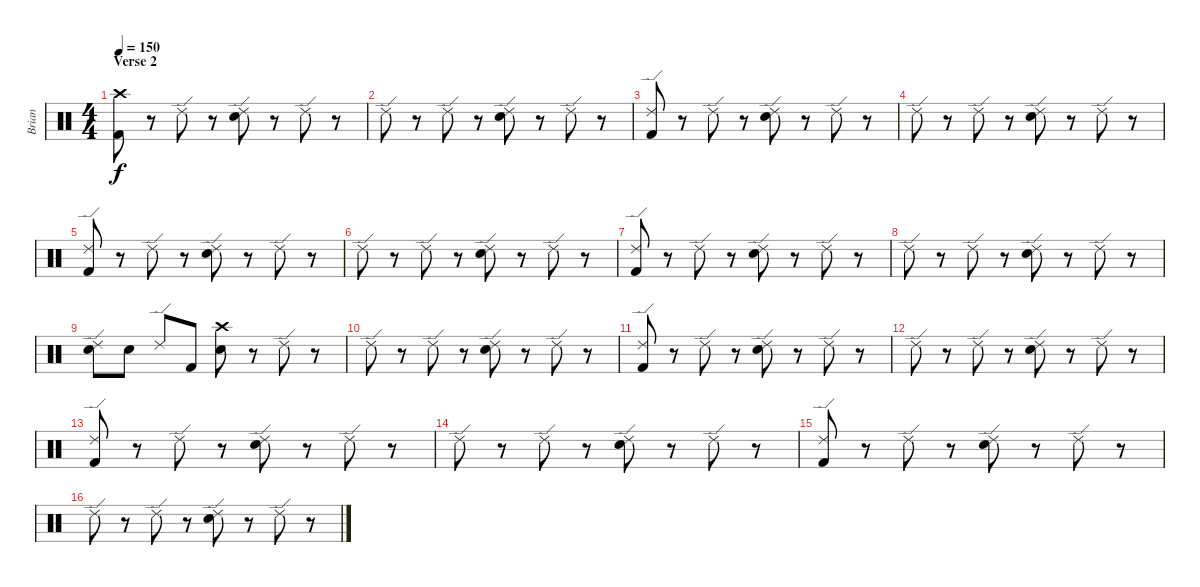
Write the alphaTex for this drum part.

\track ("Brian" "Brian") {instrument percussion}
\staff {score}
\articulation defaults
\ts (4 4)
\section ("" "Verse 2")
\tempo 150
\clef neutral
\ks c
("Crash high (hit)" "Kick (hit) 2").8{dy f} r.8 "Ride (edge) 2".8 r.8 ("Ride (edge) 2" "Snare (hit) 2").8 r.8 "Ride (edge) 2".8 r.8 |
"Ride (edge) 2".8 r.8 "Ride (edge) 2".8 r.8 ("Ride (edge) 2" "Snare (hit) 2").8 r.8 "Ride (edge) 2".8 r.8 |
("Ride (edge) 2" "Kick (hit) 2").8 r.8 "Ride (edge) 2".8 r.8 ("Ride (edge) 2" "Snare (hit) 2").8 r.8 "Ride (edge) 2".8 r.8 |
"Ride (edge) 2".8 r.8 "Ride (edge) 2".8 r.8 ("Ride (edge) 2" "Snare (hit) 2").8 r.8 "Ride (edge) 2".8 r.8 |
("Ride (edge) 2" "Kick (hit) 2").8 r.8 "Ride (edge) 2".8 r.8 ("Ride (edge) 2" "Snare (hit) 2").8 r.8 "Ride (edge) 2".8 r.8 |
"Ride (edge) 2".8 r.8 "Ride (edge) 2".8 r.8 ("Ride (edge) 2" "Snare (hit) 2").8 r.8 "Ride (edge) 2".8 r.8 |
("Ride (edge) 2" "Kick (hit) 2").8 r.8 "Ride (edge) 2".8 r.8 ("Ride (edge) 2" "Snare (hit) 2").8 r.8 "Ride (edge) 2".8 r.8 |
"Ride (edge) 2".8 r.8 "Ride (edge) 2".8 r.8 ("Ride (edge) 2" "Snare (hit) 2").8 r.8 "Ride (edge) 2".8 r.8 |
("Ride (edge) 2" "Snare (hit) 2").8 "Snare (hit) 2".8 "Ride (edge) 2".8 "Kick (hit) 2".8 ("Crash high (hit)" "Snare (hit) 2").8 r.8 "Ride (edge) 2".8 r.8 |
"Ride (edge) 2".8 r.8 "Ride (edge) 2".8 r.8 ("Ride (edge) 2" "Snare (hit) 2").8 r.8 "Ride (edge) 2".8 r.8 |
("Ride (edge) 2" "Kick (hit) 2").8 r.8 "Ride (edge) 2".8 r.8 ("Ride (edge) 2" "Snare (hit) 2").8 r.8 "Ride (edge) 2".8 r.8 |
"Ride (edge) 2".8 r.8 "Ride (edge) 2".8 r.8 ("Ride (edge) 2" "Snare (hit) 2").8 r.8 "Ride (edge) 2".8 r.8 |
("Ride (edge) 2" "Kick (hit) 2").8 r.8 "Ride (edge) 2".8 r.8 ("Ride (edge) 2" "Snare (hit) 2").8 r.8 "Ride (edge) 2".8 r.8 |
"Ride (edge) 2".8 r.8 "Ride (edge) 2".8 r.8 ("Ride (edge) 2" "Snare (hit) 2").8 r.8 "Ride (edge) 2".8 r.8 |
("Ride (edge) 2" "Kick (hit) 2").8 r.8 "Ride (edge) 2".8 r.8 ("Ride (edge) 2" "Snare (hit) 2").8 r.8 "Ride (edge) 2".8 r.8 |
"Ride (edge) 2".8 r.8 "Ride (edge) 2".8 r.8 ("Ride (edge) 2" "Snare (hit) 2").8 r.8 "Ride (edge) 2".8 r.8
